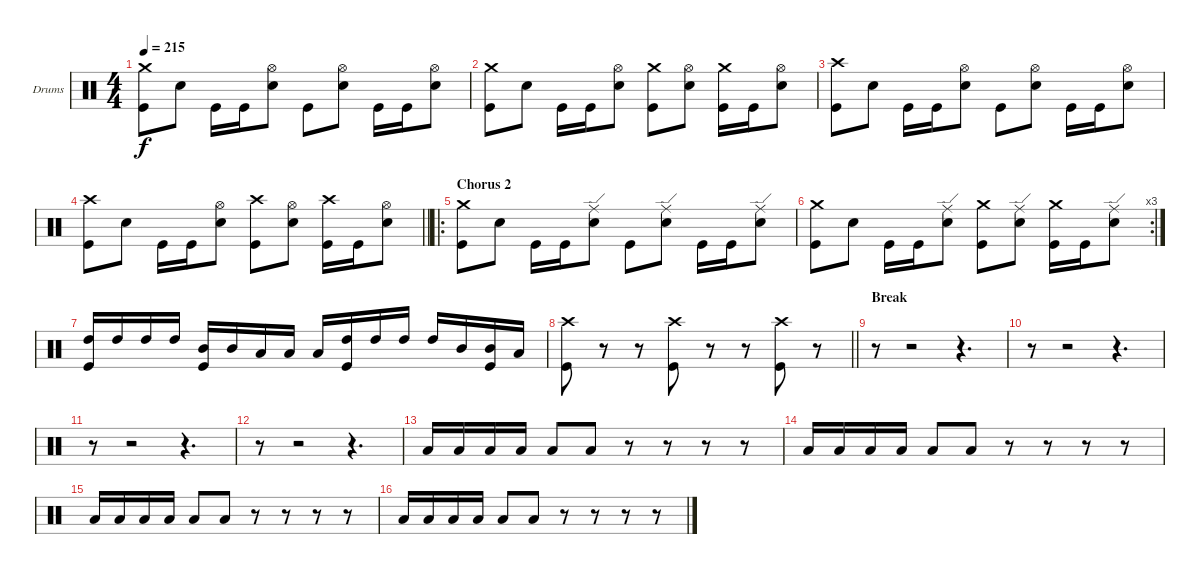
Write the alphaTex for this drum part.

\bracketExtendMode groupsimilarinstruments
\firstSystemTrackNameOrientation horizontal
\otherSystemsTrackNameOrientation horizontal
\track ("Dave McClain" "Drums") {instrument percussion}
\staff {score}
\articulation defaults
\ts (4 4)
\tempo 215
\clef neutral
\ks c
("Crash medium (hit)" "Kick (hit)").8{dy f} "Snare (hit) 2".8 "Kick (hit)".16 "Kick (hit)".16 ("Hi-Hat (open)" "Snare (hit) 2").8 "Kick (hit)".8 ("Hi-Hat (open)" "Snare (hit) 2").8 "Kick (hit)".16 "Kick (hit)".16 ("Hi-Hat (open)" "Snare (hit) 2").8 |
("Crash medium (hit)" "Kick (hit)").8 "Snare (hit) 2".8 "Kick (hit)".16 "Kick (hit)".16 ("Hi-Hat (open)" "Snare (hit) 2").8 ("Crash medium (hit)" "Kick (hit)").8 ("Hi-Hat (open)" "Snare (hit) 2").8 ("Crash medium (hit)" "Kick (hit)").16 "Kick (hit)".16 ("Hi-Hat (open)" "Snare (hit) 2").8 |
("Crash high (hit)" "Kick (hit)").8 "Snare (hit) 2".8 "Kick (hit)".16 "Kick (hit)".16 ("Hi-Hat (open)" "Snare (hit) 2").8 "Kick (hit)".8 ("Hi-Hat (open)" "Snare (hit) 2").8 "Kick (hit)".16 "Kick (hit)".16 ("Hi-Hat (open)" "Snare (hit) 2").8 |
\barLineRight lightlight
("Crash high (hit)" "Kick (hit)").8 "Snare (hit) 2".8 "Kick (hit)".16 "Kick (hit)".16 ("Hi-Hat (open)" "Snare (hit) 2").8 ("Crash high (hit)" "Kick (hit)").8 ("Hi-Hat (open)" "Snare (hit) 2").8 ("Crash high (hit)" "Kick (hit)").16 "Kick (hit)".16 ("Hi-Hat (open)" "Snare (hit) 2").8 |
\ro
\section ("" "Chorus 2")
("Crash medium (hit)" "Kick (hit)").8 "Snare (hit) 2".8 "Kick (hit)".16 "Kick (hit)".16 ("Ride (edge)" "Snare (hit) 2").8 "Kick (hit)".8 ("Ride (edge)" "Snare (hit) 2").8 "Kick (hit)".16 "Kick (hit)".16 ("Ride (edge)" "Snare (hit) 2").8 |
\rc 3
("Crash medium (hit)" "Kick (hit)").8 "Snare (hit) 2".8 "Kick (hit)".16 "Kick (hit)".16 ("Ride (edge)" "Snare (hit) 2").8 ("Crash medium (hit)" "Kick (hit)").8 ("Ride (edge)" "Snare (hit) 2").8 ("Crash medium (hit)" "Kick (hit)").16 "Kick (hit)".16 ("Ride (edge)" "Snare (hit) 2").8 |
("High Tom (hit)" "Kick (hit)").16 "High Tom (hit)".16 "High Tom (hit)".16 "High Tom (hit)".16 ("Mid Tom (hit)" "Kick (hit)").16 "Mid Tom (hit)".16 "Low Tom (hit)".16 "Low Tom (hit)".16 "Low Tom (hit)".16 ("High Tom (hit)" "Kick (hit)").16 "High Tom (hit)".16 "High Tom (hit)".16 "High Tom (hit)".16 "Mid Tom (hit)".16 ("Mid Tom (hit)" "Kick (hit)").16 "Low Tom (hit)".16 |
\barLineRight lightlight
("Crash high (hit)" "Kick (hit)").8 r.8 r.8 ("Crash high (hit)" "Kick (hit)").8 r.8 r.8 ("Crash high (hit)" "Kick (hit)").8 r.8 |
\section ("" "Break")
r.8 r.2 r.4{d} |
r.8 r.2 r.4{d} |
r.8 r.2 r.4{d} |
r.8 r.2 r.4{d} |
"Low Tom (hit)".16 "Low Tom (hit)".16 "Low Tom (hit)".16 "Low Tom (hit)".16 "Low Tom (hit)".8 "Low Tom (hit)".8 r.8 r.8 r.8 r.8 |
"Low Tom (hit)".16 "Low Tom (hit)".16 "Low Tom (hit)".16 "Low Tom (hit)".16 "Low Tom (hit)".8 "Low Tom (hit)".8 r.8 r.8 r.8 r.8 |
"Low Tom (hit)".16 "Low Tom (hit)".16 "Low Tom (hit)".16 "Low Tom (hit)".16 "Low Tom (hit)".8 "Low Tom (hit)".8 r.8 r.8 r.8 r.8 |
"Low Tom (hit)".16 "Low Tom (hit)".16 "Low Tom (hit)".16 "Low Tom (hit)".16 "Low Tom (hit)".8 "Low Tom (hit)".8 r.8 r.8 r.8 r.8
